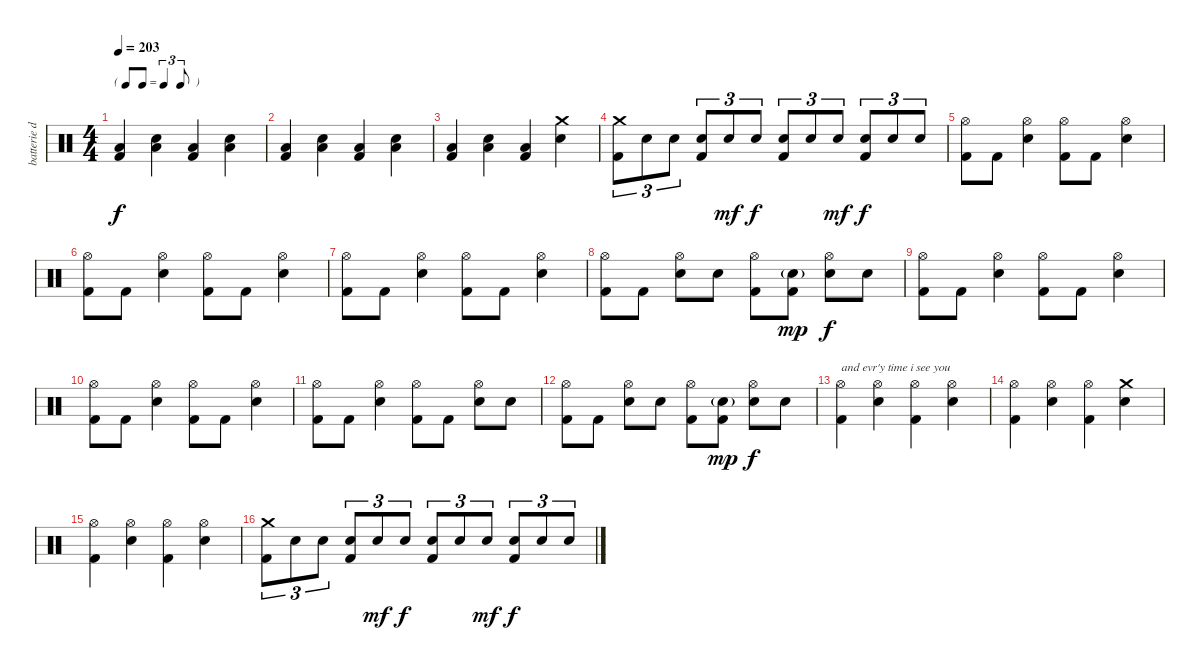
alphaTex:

\track ("batterie dub" "batterie d") {instrument percussion}
\staff {score}
\articulation defaults
\ts (4 4)
\tf triplet8th
\tempo 203
\clef neutral
\ks c
("Low Tom (hit)" "Kick (hit) 2").4{dy f} ("Low Tom (hit)" "Electric Snare (hit)").4 ("Low Tom (hit)" "Kick (hit) 2").4 ("Low Tom (hit)" "Electric Snare (hit)").4 |
("Low Tom (hit)" "Kick (hit) 2").4 ("Low Tom (hit)" "Electric Snare (hit)").4 ("Low Tom (hit)" "Kick (hit) 2").4 ("Low Tom (hit)" "Electric Snare (hit)").4 |
("Low Tom (hit)" "Kick (hit) 2").4 ("Low Tom (hit)" "Electric Snare (hit)").4 ("Low Tom (hit)" "Kick (hit) 2").4 ("Crash medium (hit)" "Electric Snare (hit)").4 |
("Crash medium (hit)" "Kick (hit) 2").8{tu (3 2)} "Electric Snare (hit)".8{tu (3 2)} "Electric Snare (hit)".8{tu (3 2)} ("Electric Snare (hit)" "Kick (hit) 2").8{tu (3 2)} "Electric Snare (hit)".8{tu (3 2) dy mf} "Electric Snare (hit)".8{tu (3 2) dy f} ("Electric Snare (hit)" "Kick (hit) 2").8{tu (3 2)} "Electric Snare (hit)".8{tu (3 2)} "Electric Snare (hit)".8{tu (3 2) dy mf} ("Electric Snare (hit)" "Kick (hit) 2").8{tu (3 2) dy f} "Electric Snare (hit)".8{tu (3 2)} "Electric Snare (hit)".8{tu (3 2)} |
("Hi-Hat (open)" "Kick (hit) 2").8 "Kick (hit) 2".8 ("Hi-Hat (open)" "Electric Snare (hit)").4 ("Hi-Hat (open)" "Kick (hit) 2").8 "Kick (hit) 2".8 ("Hi-Hat (open)" "Electric Snare (hit)").4 |
("Hi-Hat (open)" "Kick (hit) 2").8 "Kick (hit) 2".8 ("Hi-Hat (open)" "Electric Snare (hit)").4 ("Hi-Hat (open)" "Kick (hit) 2").8 "Kick (hit) 2".8 ("Hi-Hat (open)" "Electric Snare (hit)").4 |
("Hi-Hat (open)" "Kick (hit) 2").8 "Kick (hit) 2".8 ("Hi-Hat (open)" "Electric Snare (hit)").4 ("Hi-Hat (open)" "Kick (hit) 2").8 "Kick (hit) 2".8 ("Hi-Hat (open)" "Electric Snare (hit)").4 |
("Hi-Hat (open)" "Kick (hit) 2").8 "Kick (hit) 2".8 ("Hi-Hat (open)" "Electric Snare (hit)").8 "Electric Snare (hit)".8 ("Hi-Hat (open)" "Kick (hit) 2").8 ("Electric Snare (hit)"{g} "Kick (hit) 2").8{dy mp} ("Hi-Hat (open)" "Electric Snare (hit)").8{dy f} "Electric Snare (hit)".8 |
("Hi-Hat (open)" "Kick (hit) 2").8 "Kick (hit) 2".8 ("Hi-Hat (open)" "Electric Snare (hit)").4 ("Hi-Hat (open)" "Kick (hit) 2").8 "Kick (hit) 2".8 ("Hi-Hat (open)" "Electric Snare (hit)").4 |
("Hi-Hat (open)" "Kick (hit) 2").8 "Kick (hit) 2".8 ("Hi-Hat (open)" "Electric Snare (hit)").4 ("Hi-Hat (open)" "Kick (hit) 2").8 "Kick (hit) 2".8 ("Hi-Hat (open)" "Electric Snare (hit)").4 |
("Hi-Hat (open)" "Kick (hit) 2").8 "Kick (hit) 2".8 ("Hi-Hat (open)" "Electric Snare (hit)").4 ("Hi-Hat (open)" "Kick (hit) 2").8 "Kick (hit) 2".8 ("Hi-Hat (open)" "Electric Snare (hit)").8 "Electric Snare (hit)".8 |
("Hi-Hat (open)" "Kick (hit) 2").8 "Kick (hit) 2".8 ("Hi-Hat (open)" "Electric Snare (hit)").8 "Electric Snare (hit)".8 ("Hi-Hat (open)" "Kick (hit) 2").8 ("Electric Snare (hit)"{g} "Kick (hit) 2").8{dy mp} ("Hi-Hat (open)" "Electric Snare (hit)").8{dy f} "Electric Snare (hit)".8 |
("Hi-Hat (open)" "Kick (hit) 2").4{txt "and evr'y time i see you"} ("Hi-Hat (open)" "Electric Snare (hit)").4 ("Hi-Hat (open)" "Kick (hit) 2").4 ("Hi-Hat (open)" "Electric Snare (hit)").4 |
("Hi-Hat (open)" "Kick (hit) 2").4 ("Hi-Hat (open)" "Electric Snare (hit)").4 ("Hi-Hat (open)" "Kick (hit) 2").4 ("Crash medium (hit)" "Electric Snare (hit)").4 |
("Hi-Hat (open)" "Kick (hit) 2").4 ("Hi-Hat (open)" "Electric Snare (hit)").4 ("Hi-Hat (open)" "Kick (hit) 2").4 ("Hi-Hat (open)" "Electric Snare (hit)").4 |
("Crash medium (hit)" "Kick (hit) 2").8{tu (3 2)} "Electric Snare (hit)".8{tu (3 2)} "Electric Snare (hit)".8{tu (3 2)} ("Electric Snare (hit)" "Kick (hit) 2").8{tu (3 2)} "Electric Snare (hit)".8{tu (3 2) dy mf} "Electric Snare (hit)".8{tu (3 2) dy f} ("Electric Snare (hit)" "Kick (hit) 2").8{tu (3 2)} "Electric Snare (hit)".8{tu (3 2)} "Electric Snare (hit)".8{tu (3 2) dy mf} ("Electric Snare (hit)" "Kick (hit) 2").8{tu (3 2) dy f} "Electric Snare (hit)".8{tu (3 2)} "Electric Snare (hit)".8{tu (3 2)}
